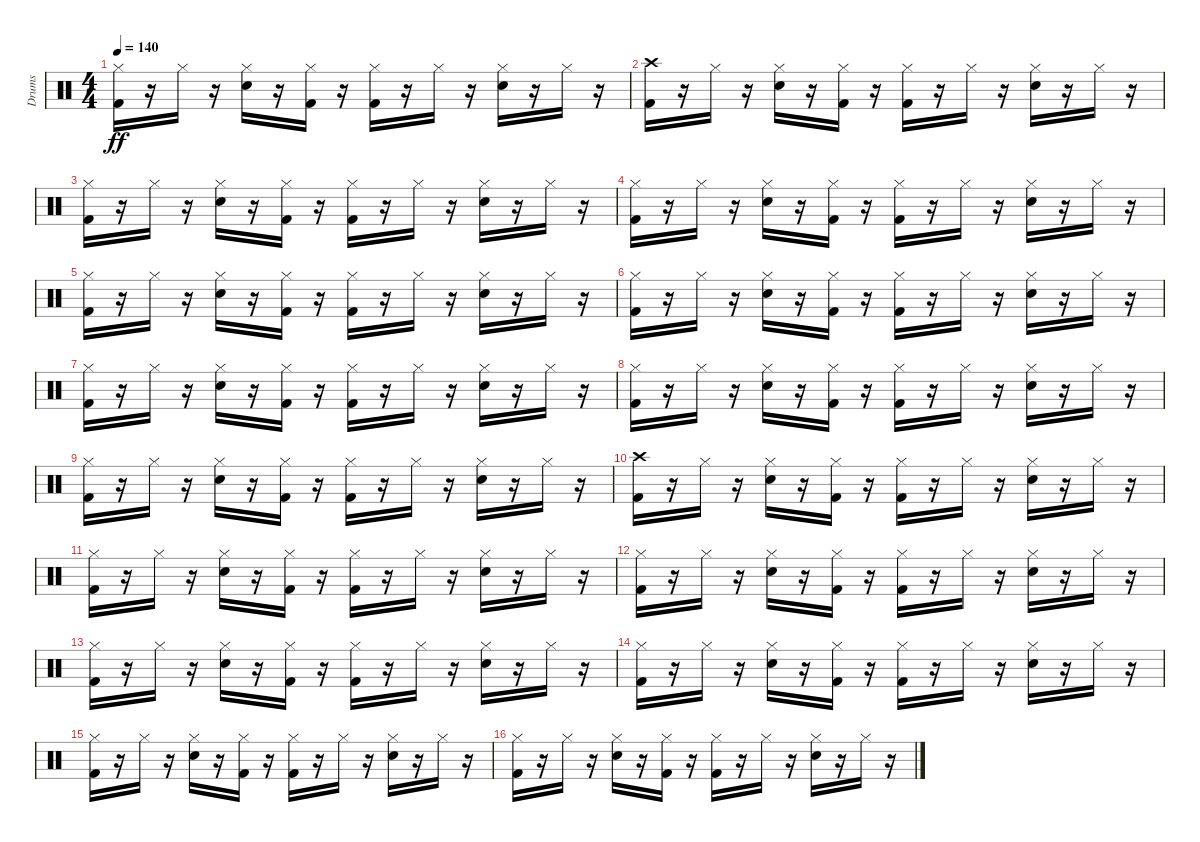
\track ("Drums" "Drums") {instrument percussion}
\staff {score}
\articulation defaults
\ts (4 4)
\tempo 140
\clef neutral
\ks c
("Hi-Hat (closed)" "Kick (hit) 2").16{dy ff} r.16 "Hi-Hat (closed)".16 r.16 ("Hi-Hat (closed)" "Snare (hit) 2").16 r.16 ("Hi-Hat (closed)" "Kick (hit) 2").16 r.16 ("Hi-Hat (closed)" "Kick (hit) 2").16 r.16 "Hi-Hat (closed)".16 r.16 ("Hi-Hat (closed)" "Snare (hit) 2").16 r.16 "Hi-Hat (closed)".16 r.16 |
("Crash high (hit)" "Kick (hit) 2").16 r.16 "Hi-Hat (closed)".16 r.16 ("Hi-Hat (closed)" "Snare (hit) 2").16 r.16 ("Hi-Hat (closed)" "Kick (hit) 2").16 r.16 ("Hi-Hat (closed)" "Kick (hit) 2").16 r.16 "Hi-Hat (closed)".16 r.16 ("Hi-Hat (closed)" "Snare (hit) 2").16 r.16 "Hi-Hat (closed)".16 r.16 |
("Hi-Hat (closed)" "Kick (hit) 2").16 r.16 "Hi-Hat (closed)".16 r.16 ("Hi-Hat (closed)" "Snare (hit) 2").16 r.16 ("Hi-Hat (closed)" "Kick (hit) 2").16 r.16 ("Hi-Hat (closed)" "Kick (hit) 2").16 r.16 "Hi-Hat (closed)".16 r.16 ("Hi-Hat (closed)" "Snare (hit) 2").16 r.16 "Hi-Hat (closed)".16 r.16 |
("Hi-Hat (closed)" "Kick (hit) 2").16 r.16 "Hi-Hat (closed)".16 r.16 ("Hi-Hat (closed)" "Snare (hit) 2").16 r.16 ("Hi-Hat (closed)" "Kick (hit) 2").16 r.16 ("Hi-Hat (closed)" "Kick (hit) 2").16 r.16 "Hi-Hat (closed)".16 r.16 ("Hi-Hat (closed)" "Snare (hit) 2").16 r.16 "Hi-Hat (closed)".16 r.16 |
("Hi-Hat (closed)" "Kick (hit) 2").16 r.16 "Hi-Hat (closed)".16 r.16 ("Hi-Hat (closed)" "Snare (hit) 2").16 r.16 ("Hi-Hat (closed)" "Kick (hit) 2").16 r.16 ("Hi-Hat (closed)" "Kick (hit) 2").16 r.16 "Hi-Hat (closed)".16 r.16 ("Hi-Hat (closed)" "Snare (hit) 2").16 r.16 "Hi-Hat (closed)".16 r.16 |
("Hi-Hat (closed)" "Kick (hit) 2").16 r.16 "Hi-Hat (closed)".16 r.16 ("Hi-Hat (closed)" "Snare (hit) 2").16 r.16 ("Hi-Hat (closed)" "Kick (hit) 2").16 r.16 ("Hi-Hat (closed)" "Kick (hit) 2").16 r.16 "Hi-Hat (closed)".16 r.16 ("Hi-Hat (closed)" "Snare (hit) 2").16 r.16 "Hi-Hat (closed)".16 r.16 |
("Hi-Hat (closed)" "Kick (hit) 2").16 r.16 "Hi-Hat (closed)".16 r.16 ("Hi-Hat (closed)" "Snare (hit) 2").16 r.16 ("Hi-Hat (closed)" "Kick (hit) 2").16 r.16 ("Hi-Hat (closed)" "Kick (hit) 2").16 r.16 "Hi-Hat (closed)".16 r.16 ("Hi-Hat (closed)" "Snare (hit) 2").16 r.16 "Hi-Hat (closed)".16 r.16 |
("Hi-Hat (closed)" "Kick (hit) 2").16 r.16 "Hi-Hat (closed)".16 r.16 ("Hi-Hat (closed)" "Snare (hit) 2").16 r.16 ("Hi-Hat (closed)" "Kick (hit) 2").16 r.16 ("Hi-Hat (closed)" "Kick (hit) 2").16 r.16 "Hi-Hat (closed)".16 r.16 ("Hi-Hat (closed)" "Snare (hit) 2").16 r.16 "Hi-Hat (closed)".16 r.16 |
("Hi-Hat (closed)" "Kick (hit) 2").16 r.16 "Hi-Hat (closed)".16 r.16 ("Hi-Hat (closed)" "Snare (hit) 2").16 r.16 ("Hi-Hat (closed)" "Kick (hit) 2").16 r.16 ("Hi-Hat (closed)" "Kick (hit) 2").16 r.16 "Hi-Hat (closed)".16 r.16 ("Hi-Hat (closed)" "Snare (hit) 2").16 r.16 "Hi-Hat (closed)".16 r.16 |
("Crash high (hit)" "Kick (hit) 2").16 r.16 "Hi-Hat (closed)".16 r.16 ("Hi-Hat (closed)" "Snare (hit) 2").16 r.16 ("Hi-Hat (closed)" "Kick (hit) 2").16 r.16 ("Hi-Hat (closed)" "Kick (hit) 2").16 r.16 "Hi-Hat (closed)".16 r.16 ("Hi-Hat (closed)" "Snare (hit) 2").16 r.16 "Hi-Hat (closed)".16 r.16 |
("Hi-Hat (closed)" "Kick (hit) 2").16 r.16 "Hi-Hat (closed)".16 r.16 ("Hi-Hat (closed)" "Snare (hit) 2").16 r.16 ("Hi-Hat (closed)" "Kick (hit) 2").16 r.16 ("Hi-Hat (closed)" "Kick (hit) 2").16 r.16 "Hi-Hat (closed)".16 r.16 ("Hi-Hat (closed)" "Snare (hit) 2").16 r.16 "Hi-Hat (closed)".16 r.16 |
("Hi-Hat (closed)" "Kick (hit) 2").16 r.16 "Hi-Hat (closed)".16 r.16 ("Hi-Hat (closed)" "Snare (hit) 2").16 r.16 ("Hi-Hat (closed)" "Kick (hit) 2").16 r.16 ("Hi-Hat (closed)" "Kick (hit) 2").16 r.16 "Hi-Hat (closed)".16 r.16 ("Hi-Hat (closed)" "Snare (hit) 2").16 r.16 "Hi-Hat (closed)".16 r.16 |
("Hi-Hat (closed)" "Kick (hit) 2").16 r.16 "Hi-Hat (closed)".16 r.16 ("Hi-Hat (closed)" "Snare (hit) 2").16 r.16 ("Hi-Hat (closed)" "Kick (hit) 2").16 r.16 ("Hi-Hat (closed)" "Kick (hit) 2").16 r.16 "Hi-Hat (closed)".16 r.16 ("Hi-Hat (closed)" "Snare (hit) 2").16 r.16 "Hi-Hat (closed)".16 r.16 |
("Hi-Hat (closed)" "Kick (hit) 2").16 r.16 "Hi-Hat (closed)".16 r.16 ("Hi-Hat (closed)" "Snare (hit) 2").16 r.16 ("Hi-Hat (closed)" "Kick (hit) 2").16 r.16 ("Hi-Hat (closed)" "Kick (hit) 2").16 r.16 "Hi-Hat (closed)".16 r.16 ("Hi-Hat (closed)" "Snare (hit) 2").16 r.16 "Hi-Hat (closed)".16 r.16 |
("Hi-Hat (closed)" "Kick (hit) 2").16 r.16 "Hi-Hat (closed)".16 r.16 ("Hi-Hat (closed)" "Snare (hit) 2").16 r.16 ("Hi-Hat (closed)" "Kick (hit) 2").16 r.16 ("Hi-Hat (closed)" "Kick (hit) 2").16 r.16 "Hi-Hat (closed)".16 r.16 ("Hi-Hat (closed)" "Snare (hit) 2").16 r.16 "Hi-Hat (closed)".16 r.16 |
("Hi-Hat (closed)" "Kick (hit) 2").16 r.16 "Hi-Hat (closed)".16 r.16 ("Hi-Hat (closed)" "Snare (hit) 2").16 r.16 ("Hi-Hat (closed)" "Kick (hit) 2").16 r.16 ("Hi-Hat (closed)" "Kick (hit) 2").16 r.16 "Hi-Hat (closed)".16 r.16 ("Hi-Hat (closed)" "Snare (hit) 2").16 r.16 "Hi-Hat (closed)".16 r.16
